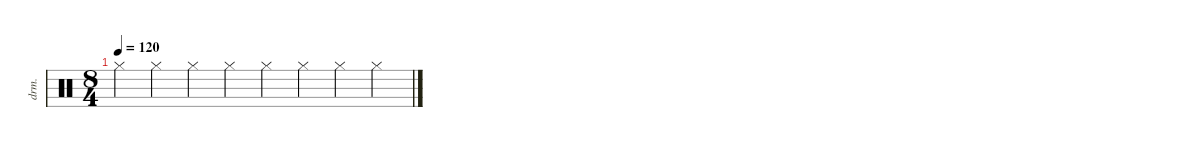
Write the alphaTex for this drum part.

\defaultSystemsLayout 4
\hideDynamics
\bracketExtendMode nobrackets
\otherSystemsTrackNameOrientation horizontal
\track ("Drumkit" "drm.") {instrument percussion}
\staff {score}
\articulation defaults
\ts (8 4)
\beaming (8 4 4 4 4)
\tempo 120
\clef neutral
\ks c "Hi-Hat (closed)".4{dy mf beam Down} "Hi-Hat (closed)".4{beam Down} "Hi-Hat (closed)".4{beam Down} "Hi-Hat (closed)".4{beam Down} "Hi-Hat (closed)".4{beam Down} "Hi-Hat (closed)".4{beam Down} "Hi-Hat (closed)".4{beam Down} "Hi-Hat (closed)".4{beam Down}
